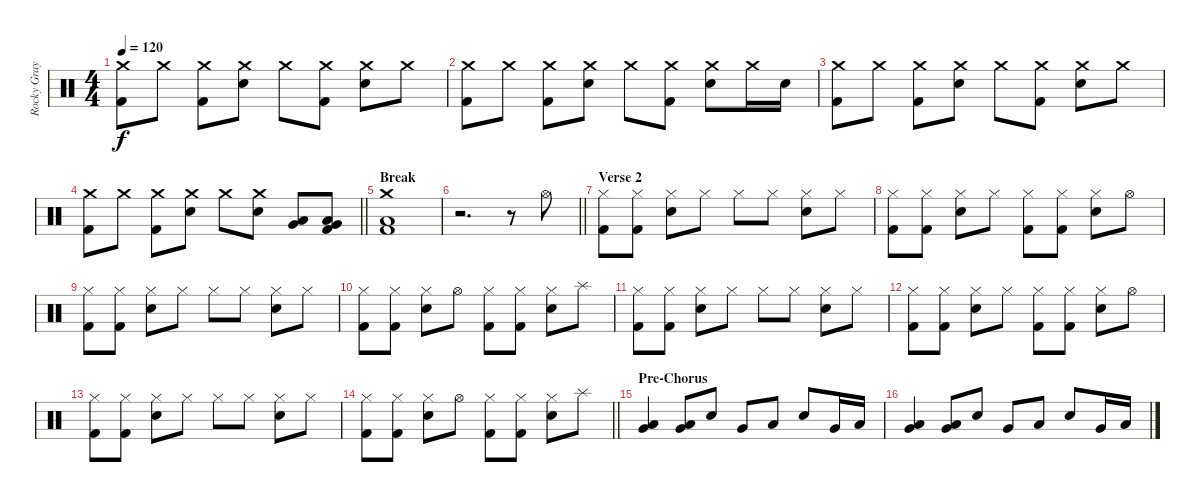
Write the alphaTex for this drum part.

\track ("Rocky Gray" "Rocky Gray") {instrument percussion}
\staff {score}
\articulation defaults
\ts (4 4)
\tempo 120
\clef neutral
\ks c
("Crash medium (hit)" "Kick (hit) 2").8{dy f} "Crash medium (hit)".8 ("Crash medium (hit)" "Kick (hit) 2").8 ("Crash medium (hit)" "Electric Snare (hit)").8 "Crash medium (hit)".8 ("Crash medium (hit)" "Kick (hit) 2").8 ("Crash medium (hit)" "Electric Snare (hit)").8 "Crash medium (hit)".8 |
("Crash medium (hit)" "Kick (hit) 2").8 "Crash medium (hit)".8 ("Crash medium (hit)" "Kick (hit) 2").8 ("Crash medium (hit)" "Electric Snare (hit)").8 "Crash medium (hit)".8 ("Crash medium (hit)" "Kick (hit) 2").8 ("Crash medium (hit)" "Electric Snare (hit)").8 "Crash medium (hit)".16 "Electric Snare (hit)".16 |
("Crash medium (hit)" "Kick (hit) 2").8 "Crash medium (hit)".8 ("Crash medium (hit)" "Kick (hit) 2").8 ("Crash medium (hit)" "Electric Snare (hit)").8 "Crash medium (hit)".8 ("Crash medium (hit)" "Kick (hit) 2").8 ("Crash medium (hit)" "Electric Snare (hit)").8 "Crash medium (hit)".8 |
\barLineRight lightlight
("Crash medium (hit)" "Kick (hit) 2").8 "Crash medium (hit)".8 ("Crash medium (hit)" "Kick (hit) 2").8 ("Crash medium (hit)" "Electric Snare (hit)").8 "Crash medium (hit)".8 ("Crash medium (hit)" "Electric Snare (hit)").8 ("Very Low Tom (hit)" "Low Tom (hit)").8 ("Low Floor Tom (hit)" "Very Low Tom (hit)" "Kick (hit) 2").8 |
\section ("" "Break")
("Low Floor Tom (hit)" "Crash medium (hit)" "Kick (hit) 2").1 |
\barLineRight lightlight
r.2{d} r.8 "Hi-Hat (open)".8 |
\section ("" "Verse 2")
("Hi-Hat (closed)" "Kick (hit) 2").8 ("Hi-Hat (closed)" "Kick (hit) 2").8 ("Hi-Hat (closed)" "Electric Snare (hit)").8 "Hi-Hat (closed)".8 "Hi-Hat (closed)".8 "Hi-Hat (closed)".8 ("Hi-Hat (closed)" "Electric Snare (hit)").8 "Hi-Hat (closed)".8 |
("Hi-Hat (closed)" "Kick (hit) 2").8 ("Hi-Hat (closed)" "Kick (hit) 2").8 ("Hi-Hat (closed)" "Electric Snare (hit)").8 "Hi-Hat (closed)".8 ("Hi-Hat (closed)" "Kick (hit) 2").8 ("Hi-Hat (closed)" "Kick (hit) 2").8 ("Hi-Hat (closed)" "Electric Snare (hit)").8 "Hi-Hat (open)".8 |
("Hi-Hat (closed)" "Kick (hit) 2").8 ("Hi-Hat (closed)" "Kick (hit) 2").8 ("Hi-Hat (closed)" "Electric Snare (hit)").8 "Hi-Hat (closed)".8 "Hi-Hat (closed)".8 "Hi-Hat (closed)".8 ("Hi-Hat (closed)" "Electric Snare (hit)").8 "Hi-Hat (closed)".8 |
("Hi-Hat (closed)" "Kick (hit) 2").8 ("Hi-Hat (closed)" "Kick (hit) 2").8 ("Hi-Hat (closed)" "Electric Snare (hit)").8 "Hi-Hat (open)".8 ("Hi-Hat (closed)" "Kick (hit) 2").8 ("Hi-Hat (closed)" "Kick (hit) 2").8 ("Hi-Hat (closed)" "Electric Snare (hit)").8 "Splash (hit)".8 |
("Hi-Hat (closed)" "Kick (hit) 2").8 ("Hi-Hat (closed)" "Kick (hit) 2").8 ("Hi-Hat (closed)" "Electric Snare (hit)").8 "Hi-Hat (closed)".8 "Hi-Hat (closed)".8 "Hi-Hat (closed)".8 ("Hi-Hat (closed)" "Electric Snare (hit)").8 "Hi-Hat (closed)".8 |
("Hi-Hat (closed)" "Kick (hit) 2").8 ("Hi-Hat (closed)" "Kick (hit) 2").8 ("Hi-Hat (closed)" "Electric Snare (hit)").8 "Hi-Hat (closed)".8 ("Hi-Hat (closed)" "Kick (hit) 2").8 ("Hi-Hat (closed)" "Kick (hit) 2").8 ("Hi-Hat (closed)" "Electric Snare (hit)").8 "Hi-Hat (open)".8 |
("Hi-Hat (closed)" "Kick (hit) 2").8 ("Hi-Hat (closed)" "Kick (hit) 2").8 ("Hi-Hat (closed)" "Electric Snare (hit)").8 "Hi-Hat (closed)".8 "Hi-Hat (closed)".8 "Hi-Hat (closed)".8 ("Hi-Hat (closed)" "Electric Snare (hit)").8 "Hi-Hat (closed)".8 |
\barLineRight lightlight
("Hi-Hat (closed)" "Kick (hit) 2").8 ("Hi-Hat (closed)" "Kick (hit) 2").8 ("Hi-Hat (closed)" "Electric Snare (hit)").8 "Hi-Hat (open)".8 ("Hi-Hat (closed)" "Kick (hit) 2").8 ("Hi-Hat (closed)" "Kick (hit) 2").8 ("Hi-Hat (closed)" "Electric Snare (hit)").8 "Splash (hit)".8 |
\section ("" "Pre-Chorus")
("Low Floor Tom (hit)" "Very Low Tom (hit)").4 ("Low Floor Tom (hit)" "Very Low Tom (hit)").8 "Electric Snare (hit)".8 "Very Low Tom (hit)".8 "Low Floor Tom (hit)".8 "Electric Snare (hit)".8 "Very Low Tom (hit)".16 "Low Floor Tom (hit)".16 |
("Low Floor Tom (hit)" "Very Low Tom (hit)").4 ("Low Floor Tom (hit)" "Very Low Tom (hit)").8 "Electric Snare (hit)".8 "Very Low Tom (hit)".8 "Low Floor Tom (hit)".8 "Electric Snare (hit)".8 "Very Low Tom (hit)".16 "Low Floor Tom (hit)".16
